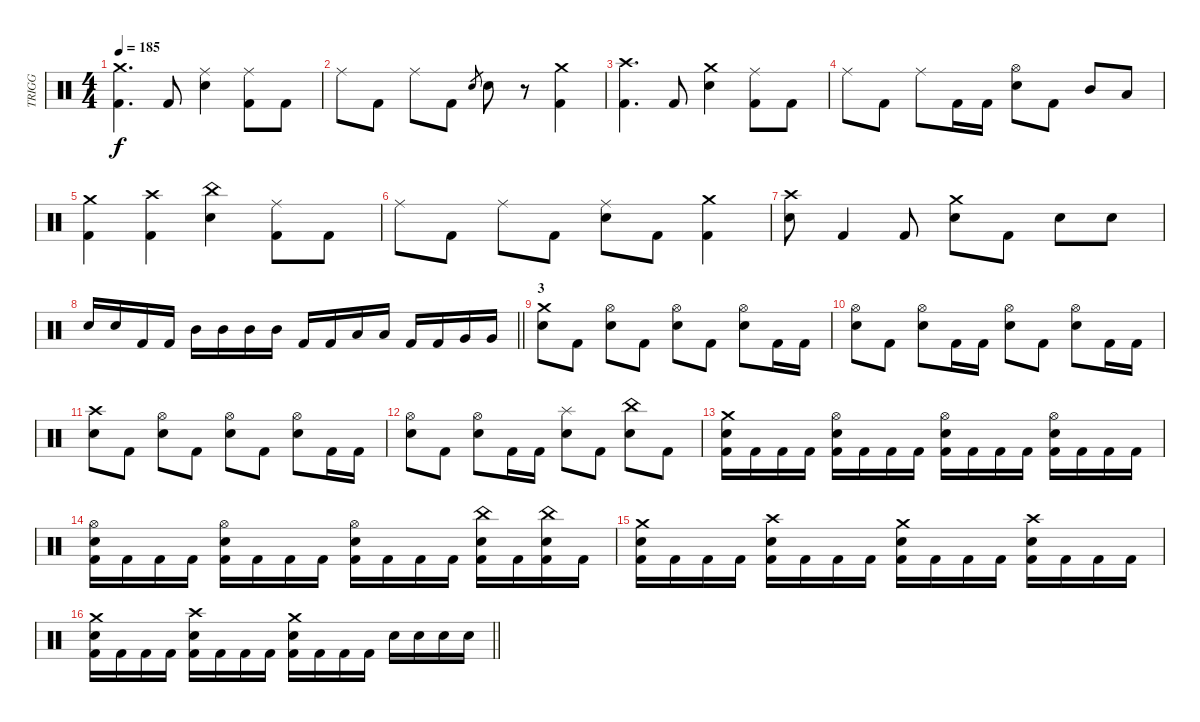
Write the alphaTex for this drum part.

\track ("TRIGG" "TRIGG") {instrument percussion}
\staff {score}
\articulation defaults
\ts (4 4)
\tempo 185
\clef neutral
\ks c
("Crash medium (hit)" "Kick (hit) 2").4{d dy f} "Kick (hit) 2".8 ("Ride (middle)" "Electric Snare (hit)").4 ("Ride (middle)" "Kick (hit) 2").8 "Kick (hit) 2".8 |
"Ride (middle)".8 "Kick (hit) 2".8 "Ride (middle)".8 "Kick (hit) 2".8 "Electric Snare (hit)".8{gr} "Electric Snare (hit)".8 r.8 ("Crash medium (hit)" "Kick (hit) 2").4 |
("Crash high (hit)" "Kick (hit) 2").4{d} "Kick (hit) 2".8 ("Crash medium (hit)" "Electric Snare (hit)").4 ("Ride (middle)" "Kick (hit) 2").8 "Kick (hit) 2".8 |
"Ride (middle)".8 "Kick (hit) 2".8 "Ride (middle)".8 "Kick (hit) 2".16 "Kick (hit) 2".16 ("Hi-Hat (open)" "Electric Snare (hit)").8 "Kick (hit) 2".8 "Mid Tom (hit)".8 "Low Tom (hit)".8 |
("Crash medium (hit)" "Kick (hit) 2").4 ("Crash high (hit)" "Kick (hit) 2").4 ("China (hit)" "Electric Snare (hit)").4 ("Ride (middle)" "Kick (hit) 2").8 "Kick (hit) 2".8 |
"Ride (middle)".8 "Kick (hit) 2".8 "Ride (middle)".8 "Kick (hit) 2".8 ("Ride (middle)" "Electric Snare (hit)").8 "Kick (hit) 2".8 ("Crash medium (hit)" "Kick (hit) 2").4 |
("Crash high (hit)" "Electric Snare (hit)").8 "Kick (hit) 2".4 "Kick (hit) 2".8 ("Crash medium (hit)" "Electric Snare (hit)").8 "Kick (hit) 2".8 "Electric Snare (hit)".8 "Electric Snare (hit)".8 |
\barLineRight lightlight "Electric Snare (hit)".16 "Electric Snare (hit)".16 "Kick (hit) 2".16 "Kick (hit) 2".16 "Mid Tom (hit)".16 "Mid Tom (hit)".16 "Mid Tom (hit)".16 "Mid Tom (hit)".16 "Kick (hit) 2".16 "Kick (hit) 2".16 "Low Tom (hit)".16 "Low Tom (hit)".16 "Kick (hit) 2".16 "Kick (hit) 2".16 "Very Low Tom (hit)".16 "Very Low Tom (hit)".16
|
\section ("" "3")
("Crash medium (hit)" "Electric Snare (hit)").8 "Kick (hit) 2".8 ("Hi-Hat (open)" "Electric Snare (hit)").8 "Kick (hit) 2".8 ("Hi-Hat (open)" "Electric Snare (hit)").8 "Kick (hit) 2".8 ("Hi-Hat (open)" "Electric Snare (hit)").8 "Kick (hit) 2".16 "Kick (hit) 2".16 |
("Hi-Hat (open)" "Electric Snare (hit)").8 "Kick (hit) 2".8 ("Hi-Hat (open)" "Electric Snare (hit)").8 "Kick (hit) 2".16 "Kick (hit) 2".16 ("Hi-Hat (open)" "Electric Snare (hit)").8 "Kick (hit) 2".8 ("Hi-Hat (open)" "Electric Snare (hit)").8 "Kick (hit) 2".16 "Kick (hit) 2".16 |
("Crash high (hit)" "Electric Snare (hit)").8 "Kick (hit) 2".8 ("Hi-Hat (open)" "Electric Snare (hit)").8 "Kick (hit) 2".8 ("Hi-Hat (open)" "Electric Snare (hit)").8 "Kick (hit) 2".8 ("Hi-Hat (open)" "Electric Snare (hit)").8 "Kick (hit) 2".16 "Kick (hit) 2".16 |
("Hi-Hat (open)" "Electric Snare (hit)").8 "Kick (hit) 2".8 ("Hi-Hat (open)" "Electric Snare (hit)").8 "Kick (hit) 2".16 "Kick (hit) 2".16 ("Splash (hit)" "Electric Snare (hit)").8 "Kick (hit) 2".8 ("China (hit)" "Electric Snare (hit)").8 "Kick (hit) 2".8 |
("Crash medium (hit)" "Electric Snare (hit)" "Kick (hit) 2").16 "Kick (hit) 2".16 "Kick (hit) 2".16 "Kick (hit) 2".16 ("Hi-Hat (open)" "Electric Snare (hit)" "Kick (hit) 2").16 "Kick (hit) 2".16 "Kick (hit) 2".16 "Kick (hit) 2".16 ("Hi-Hat (open)" "Electric Snare (hit)" "Kick (hit) 2").16 "Kick (hit) 2".16 "Kick (hit) 2".16 "Kick (hit) 2".16 ("Hi-Hat (open)" "Electric Snare (hit)" "Kick (hit) 2").16 "Kick (hit) 2".16 "Kick (hit) 2".16 "Kick (hit) 2".16 |
("Hi-Hat (open)" "Electric Snare (hit)" "Kick (hit) 2").16 "Kick (hit) 2".16 "Kick (hit) 2".16 "Kick (hit) 2".16 ("Hi-Hat (open)" "Electric Snare (hit)" "Kick (hit) 2").16 "Kick (hit) 2".16 "Kick (hit) 2".16 "Kick (hit) 2".16 ("Hi-Hat (open)" "Electric Snare (hit)" "Kick (hit) 2").16 "Kick (hit) 2".16 "Kick (hit) 2".16 "Kick (hit) 2".16 ("China (hit)" "Electric Snare (hit)" "Kick (hit) 2").16 "Kick (hit) 2".16 ("China (hit)" "Electric Snare (hit)" "Kick (hit) 2").16 "Kick (hit) 2".16 |
("Crash medium (hit)" "Electric Snare (hit)" "Kick (hit) 2").16 "Kick (hit) 2".16 "Kick (hit) 2".16 "Kick (hit) 2".16 ("Crash high (hit)" "Electric Snare (hit)" "Kick (hit) 2").16 "Kick (hit) 2".16 "Kick (hit) 2".16 "Kick (hit) 2".16 ("Crash medium (hit)" "Electric Snare (hit)" "Kick (hit) 2").16 "Kick (hit) 2".16 "Kick (hit) 2".16 "Kick (hit) 2".16 ("Crash high (hit)" "Electric Snare (hit)" "Kick (hit) 2").16 "Kick (hit) 2".16 "Kick (hit) 2".16 "Kick (hit) 2".16 |
\barLineRight lightlight
("Crash medium (hit)" "Electric Snare (hit)" "Kick (hit) 2").16 "Kick (hit) 2".16 "Kick (hit) 2".16 "Kick (hit) 2".16 ("Crash high (hit)" "Electric Snare (hit)" "Kick (hit) 2").16 "Kick (hit) 2".16 "Kick (hit) 2".16 "Kick (hit) 2".16 ("Crash medium (hit)" "Electric Snare (hit)" "Kick (hit) 2").16 "Kick (hit) 2".16 "Kick (hit) 2".16 "Kick (hit) 2".16 "Electric Snare (hit)".16 "Electric Snare (hit)".16 "Electric Snare (hit)".16 "Electric Snare (hit)".16
